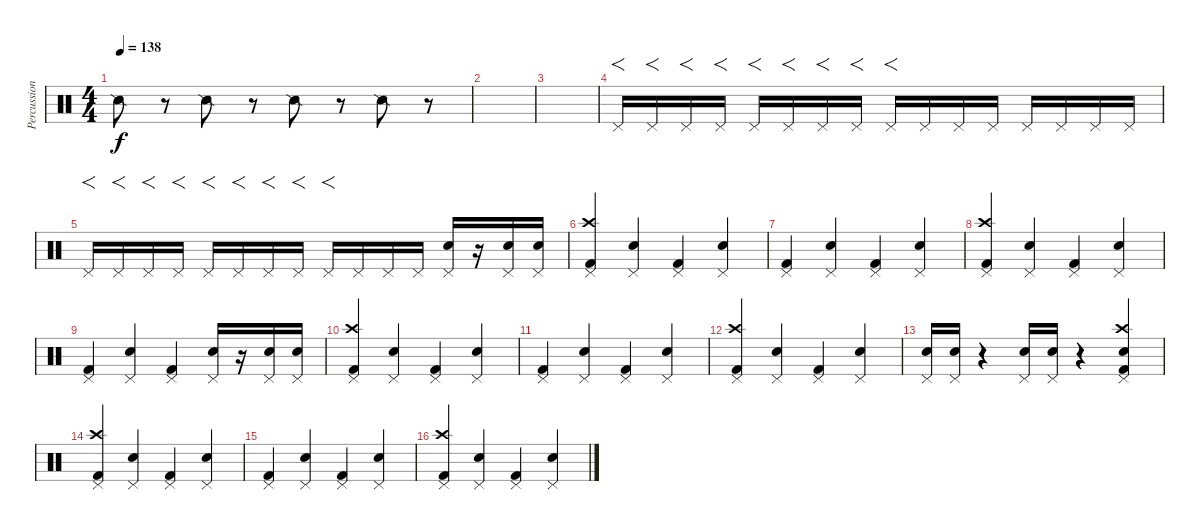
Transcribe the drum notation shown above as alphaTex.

\track ("Percussion" "Percussion") {instrument percussion}
\staff {score}
\articulation defaults
\ts (4 4)
\tempo 138
\clef neutral
\ks c "Snare (side stick) 2".8{dy f}
r.8 "Snare (side stick) 2".8 r.8 "Snare (side stick) 2".8 r.8 "Snare (side stick) 2".8 r.8 |
|
|
"Pedal Hi-Hat (hit)".16{f} "Pedal Hi-Hat (hit)".16{f} "Pedal Hi-Hat (hit)".16{f} "Pedal Hi-Hat (hit)".16{f} "Pedal Hi-Hat (hit)".16{f} "Pedal Hi-Hat (hit)".16{f} "Pedal Hi-Hat (hit)".16{f} "Pedal Hi-Hat (hit)".16{f} "Pedal Hi-Hat (hit)".16{f} "Pedal Hi-Hat (hit)".16 "Pedal Hi-Hat (hit)".16 "Pedal Hi-Hat (hit)".16 "Pedal Hi-Hat (hit)".16 "Pedal Hi-Hat (hit)".16 "Pedal Hi-Hat (hit)".16 "Pedal Hi-Hat (hit)".16 |
"Pedal Hi-Hat (hit)".16{f} "Pedal Hi-Hat (hit)".16{f} "Pedal Hi-Hat (hit)".16{f} "Pedal Hi-Hat (hit)".16{f} "Pedal Hi-Hat (hit)".16{f} "Pedal Hi-Hat (hit)".16{f} "Pedal Hi-Hat (hit)".16{f} "Pedal Hi-Hat (hit)".16{f} "Pedal Hi-Hat (hit)".16{f} "Pedal Hi-Hat (hit)".16 "Pedal Hi-Hat (hit)".16 "Pedal Hi-Hat (hit)".16 ("Pedal Hi-Hat (hit)" "Snare (hit) 2").16 r.16 ("Pedal Hi-Hat (hit)" "Snare (hit) 2").16 ("Pedal Hi-Hat (hit)" "Snare (hit) 2").16 |
("Pedal Hi-Hat (hit)" "Crash high (hit)" "Kick (hit) 2").4 ("Pedal Hi-Hat (hit)" "Snare (hit) 2").4 ("Pedal Hi-Hat (hit)" "Kick (hit) 2").4 ("Pedal Hi-Hat (hit)" "Snare (hit) 2").4 |
("Pedal Hi-Hat (hit)" "Kick (hit) 2").4 ("Pedal Hi-Hat (hit)" "Snare (hit) 2").4 ("Pedal Hi-Hat (hit)" "Kick (hit) 2").4 ("Pedal Hi-Hat (hit)" "Snare (hit) 2").4 |
("Pedal Hi-Hat (hit)" "Crash high (hit)" "Kick (hit) 2").4 ("Pedal Hi-Hat (hit)" "Snare (hit) 2").4 ("Pedal Hi-Hat (hit)" "Kick (hit) 2").4 ("Pedal Hi-Hat (hit)" "Snare (hit) 2").4 |
("Pedal Hi-Hat (hit)" "Kick (hit) 2").4 ("Pedal Hi-Hat (hit)" "Snare (hit) 2").4 ("Pedal Hi-Hat (hit)" "Kick (hit) 2").4 ("Pedal Hi-Hat (hit)" "Snare (hit) 2").16 r.16 ("Pedal Hi-Hat (hit)" "Snare (hit) 2").16 ("Pedal Hi-Hat (hit)" "Snare (hit) 2").16 |
("Pedal Hi-Hat (hit)" "Crash high (hit)" "Kick (hit) 2").4 ("Pedal Hi-Hat (hit)" "Snare (hit) 2").4 ("Pedal Hi-Hat (hit)" "Kick (hit) 2").4 ("Pedal Hi-Hat (hit)" "Snare (hit) 2").4 |
("Pedal Hi-Hat (hit)" "Kick (hit) 2").4 ("Pedal Hi-Hat (hit)" "Snare (hit) 2").4 ("Pedal Hi-Hat (hit)" "Kick (hit) 2").4 ("Pedal Hi-Hat (hit)" "Snare (hit) 2").4 |
("Pedal Hi-Hat (hit)" "Crash high (hit)" "Kick (hit) 2").4 ("Pedal Hi-Hat (hit)" "Snare (hit) 2").4 ("Pedal Hi-Hat (hit)" "Kick (hit) 2").4 ("Pedal Hi-Hat (hit)" "Snare (hit) 2").4 |
("Pedal Hi-Hat (hit)" "Electric Snare (hit)").16 ("Pedal Hi-Hat (hit)" "Snare (hit) 2").16 r.4 ("Pedal Hi-Hat (hit)" "Electric Snare (hit)").16 ("Pedal Hi-Hat (hit)" "Snare (hit) 2").16 r.4 ("Pedal Hi-Hat (hit)" "Snare (hit) 2" "Kick (hit) 2" "Crash high (hit)").4 |
("Pedal Hi-Hat (hit)" "Crash high (hit)" "Kick (hit) 2").4 ("Pedal Hi-Hat (hit)" "Snare (hit) 2").4 ("Pedal Hi-Hat (hit)" "Kick (hit) 2").4 ("Pedal Hi-Hat (hit)" "Snare (hit) 2").4 |
("Pedal Hi-Hat (hit)" "Kick (hit) 2").4 ("Pedal Hi-Hat (hit)" "Snare (hit) 2").4 ("Pedal Hi-Hat (hit)" "Kick (hit) 2").4 ("Pedal Hi-Hat (hit)" "Snare (hit) 2").4 |
("Pedal Hi-Hat (hit)" "Crash high (hit)" "Kick (hit) 2").4 ("Pedal Hi-Hat (hit)" "Snare (hit) 2").4 ("Pedal Hi-Hat (hit)" "Kick (hit) 2").4 ("Pedal Hi-Hat (hit)" "Snare (hit) 2").4
